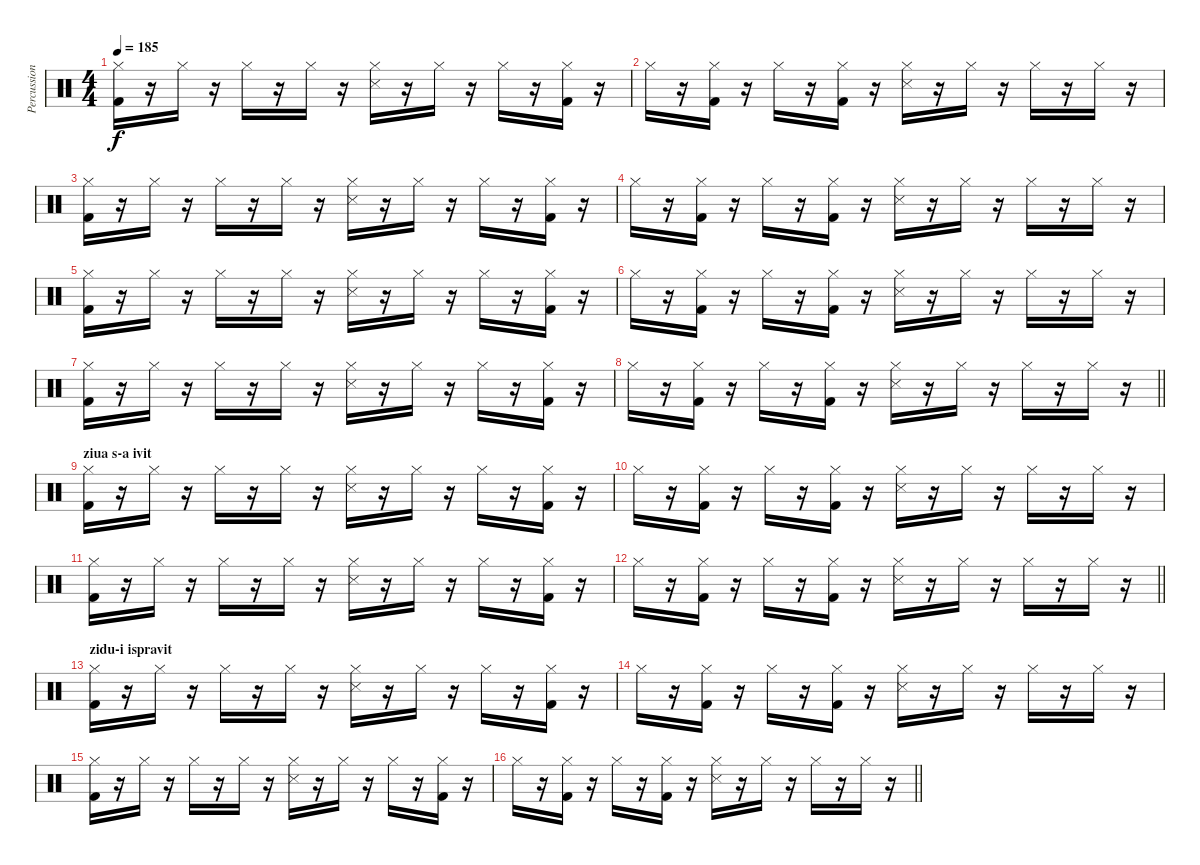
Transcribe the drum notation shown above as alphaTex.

\track ("Percussion" "Percussion") {instrument percussion}
\staff {score}
\articulation defaults
\ts (4 4)
\tempo 185
\clef neutral
\ks c
("Hi-Hat (closed)" "Kick (hit) 2").16{dy f} r.16 "Hi-Hat (closed)".16 r.16 "Hi-Hat (closed)".16 r.16 "Hi-Hat (closed)".16 r.16 ("Hi-Hat (closed)" "Metronome (hit)").16 r.16 "Hi-Hat (closed)".16 r.16 "Hi-Hat (closed)".16 r.16 ("Hi-Hat (closed)" "Kick (hit) 2").16 r.16 |
"Hi-Hat (closed)".16 r.16 ("Hi-Hat (closed)" "Kick (hit) 2").16 r.16 "Hi-Hat (closed)".16 r.16 ("Hi-Hat (closed)" "Kick (hit) 2").16 r.16 ("Hi-Hat (closed)" "Metronome (hit)").16 r.16 "Hi-Hat (closed)".16 r.16 "Hi-Hat (closed)".16 r.16 "Hi-Hat (closed)".16 r.16 |
("Hi-Hat (closed)" "Kick (hit) 2").16 r.16 "Hi-Hat (closed)".16 r.16 "Hi-Hat (closed)".16 r.16 "Hi-Hat (closed)".16 r.16 ("Hi-Hat (closed)" "Metronome (hit)").16 r.16 "Hi-Hat (closed)".16 r.16 "Hi-Hat (closed)".16 r.16 ("Hi-Hat (closed)" "Kick (hit) 2").16 r.16 |
"Hi-Hat (closed)".16 r.16 ("Hi-Hat (closed)" "Kick (hit) 2").16 r.16 "Hi-Hat (closed)".16 r.16 ("Hi-Hat (closed)" "Kick (hit) 2").16 r.16 ("Hi-Hat (closed)" "Metronome (hit)").16 r.16 "Hi-Hat (closed)".16 r.16 "Hi-Hat (closed)".16 r.16 "Hi-Hat (closed)".16 r.16 |
("Hi-Hat (closed)" "Kick (hit) 2").16 r.16 "Hi-Hat (closed)".16 r.16 "Hi-Hat (closed)".16 r.16 "Hi-Hat (closed)".16 r.16 ("Hi-Hat (closed)" "Metronome (hit)").16 r.16 "Hi-Hat (closed)".16 r.16 "Hi-Hat (closed)".16 r.16 ("Hi-Hat (closed)" "Kick (hit) 2").16 r.16 |
"Hi-Hat (closed)".16 r.16 ("Hi-Hat (closed)" "Kick (hit) 2").16 r.16 "Hi-Hat (closed)".16 r.16 ("Hi-Hat (closed)" "Kick (hit) 2").16 r.16 ("Hi-Hat (closed)" "Metronome (hit)").16 r.16 "Hi-Hat (closed)".16 r.16 "Hi-Hat (closed)".16 r.16 "Hi-Hat (closed)".16 r.16 |
("Hi-Hat (closed)" "Kick (hit) 2").16 r.16 "Hi-Hat (closed)".16 r.16 "Hi-Hat (closed)".16 r.16 "Hi-Hat (closed)".16 r.16 ("Hi-Hat (closed)" "Metronome (hit)").16 r.16 "Hi-Hat (closed)".16 r.16 "Hi-Hat (closed)".16 r.16 ("Hi-Hat (closed)" "Kick (hit) 2").16 r.16 |
\barLineRight lightlight "Hi-Hat (closed)".16
r.16 ("Hi-Hat (closed)" "Kick (hit) 2").16 r.16 "Hi-Hat (closed)".16 r.16 ("Hi-Hat (closed)" "Kick (hit) 2").16 r.16 ("Hi-Hat (closed)" "Metronome (hit)").16 r.16 "Hi-Hat (closed)".16 r.16 "Hi-Hat (closed)".16 r.16 "Hi-Hat (closed)".16 r.16 |
\section ("" "ziua s-a ivit")
("Hi-Hat (closed)" "Kick (hit) 2").16 r.16 "Hi-Hat (closed)".16 r.16 "Hi-Hat (closed)".16 r.16 "Hi-Hat (closed)".16 r.16 ("Hi-Hat (closed)" "Metronome (hit)").16 r.16 "Hi-Hat (closed)".16 r.16 "Hi-Hat (closed)".16 r.16 ("Hi-Hat (closed)" "Kick (hit) 2").16 r.16 |
"Hi-Hat (closed)".16 r.16 ("Hi-Hat (closed)" "Kick (hit) 2").16 r.16 "Hi-Hat (closed)".16 r.16 ("Hi-Hat (closed)" "Kick (hit) 2").16 r.16 ("Hi-Hat (closed)" "Metronome (hit)").16 r.16 "Hi-Hat (closed)".16 r.16 "Hi-Hat (closed)".16 r.16 "Hi-Hat (closed)".16 r.16 |
("Hi-Hat (closed)" "Kick (hit) 2").16 r.16 "Hi-Hat (closed)".16 r.16 "Hi-Hat (closed)".16 r.16 "Hi-Hat (closed)".16 r.16 ("Hi-Hat (closed)" "Metronome (hit)").16 r.16 "Hi-Hat (closed)".16 r.16 "Hi-Hat (closed)".16 r.16 ("Hi-Hat (closed)" "Kick (hit) 2").16 r.16 |
\barLineRight lightlight "Hi-Hat (closed)".16
r.16 ("Hi-Hat (closed)" "Kick (hit) 2").16 r.16 "Hi-Hat (closed)".16 r.16 ("Hi-Hat (closed)" "Kick (hit) 2").16 r.16 ("Hi-Hat (closed)" "Metronome (hit)").16 r.16 "Hi-Hat (closed)".16 r.16 "Hi-Hat (closed)".16 r.16 "Hi-Hat (closed)".16 r.16 |
\section ("" "zidu-i ispravit")
("Hi-Hat (closed)" "Kick (hit) 2").16 r.16 "Hi-Hat (closed)".16 r.16 "Hi-Hat (closed)".16 r.16 "Hi-Hat (closed)".16 r.16 ("Hi-Hat (closed)" "Metronome (hit)").16 r.16 "Hi-Hat (closed)".16 r.16 "Hi-Hat (closed)".16 r.16 ("Hi-Hat (closed)" "Kick (hit) 2").16 r.16 |
"Hi-Hat (closed)".16 r.16 ("Hi-Hat (closed)" "Kick (hit) 2").16 r.16 "Hi-Hat (closed)".16 r.16 ("Hi-Hat (closed)" "Kick (hit) 2").16 r.16 ("Hi-Hat (closed)" "Metronome (hit)").16 r.16 "Hi-Hat (closed)".16 r.16 "Hi-Hat (closed)".16 r.16 "Hi-Hat (closed)".16 r.16 |
("Hi-Hat (closed)" "Kick (hit) 2").16 r.16 "Hi-Hat (closed)".16 r.16 "Hi-Hat (closed)".16 r.16 "Hi-Hat (closed)".16 r.16 ("Hi-Hat (closed)" "Metronome (hit)").16 r.16 "Hi-Hat (closed)".16 r.16 "Hi-Hat (closed)".16 r.16 ("Hi-Hat (closed)" "Kick (hit) 2").16 r.16 |
\barLineRight lightlight "Hi-Hat (closed)".16
r.16 ("Hi-Hat (closed)" "Kick (hit) 2").16 r.16 "Hi-Hat (closed)".16 r.16 ("Hi-Hat (closed)" "Kick (hit) 2").16 r.16 ("Hi-Hat (closed)" "Metronome (hit)").16 r.16 "Hi-Hat (closed)".16 r.16 "Hi-Hat (closed)".16 r.16 "Hi-Hat (closed)".16 r.16
